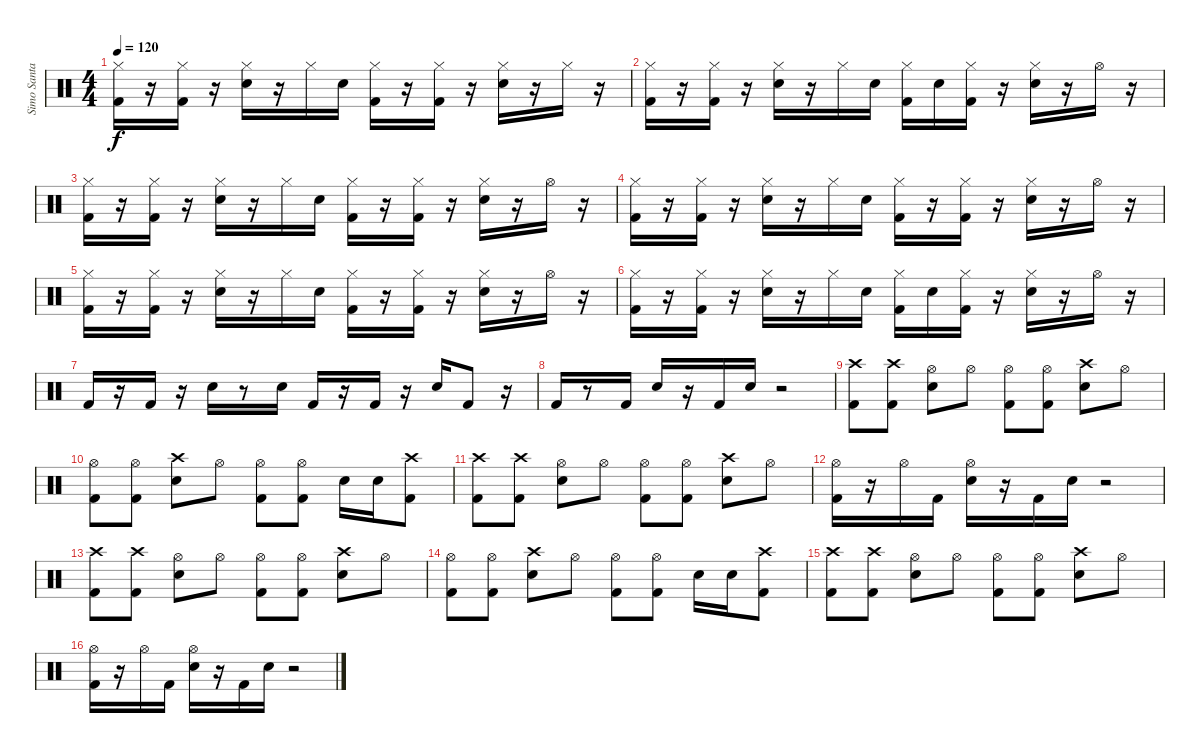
\track ("Simo Santapukki" "Simo Santa") {instrument percussion}
\staff {score}
\articulation defaults
\ts (4 4)
\tempo 120
\clef neutral
\ks c
("Hi-Hat (closed)" "Kick (hit) 2").16{dy f} r.16 ("Hi-Hat (closed)" "Kick (hit) 2").16 r.16 ("Hi-Hat (closed)" "Snare (hit) 2").16 r.16 "Hi-Hat (closed)".16 "Snare (hit) 2".16 ("Hi-Hat (closed)" "Kick (hit) 2").16 r.16 ("Hi-Hat (closed)" "Kick (hit) 2").16 r.16 ("Hi-Hat (closed)" "Snare (hit) 2").16 r.16 "Hi-Hat (closed)".16 r.16 |
("Hi-Hat (closed)" "Kick (hit) 2").16 r.16 ("Hi-Hat (closed)" "Kick (hit) 2").16 r.16 ("Hi-Hat (closed)" "Snare (hit) 2").16 r.16 "Hi-Hat (closed)".16 "Snare (hit) 2".16 ("Hi-Hat (closed)" "Kick (hit) 2").16 "Snare (hit) 2".16 ("Hi-Hat (closed)" "Kick (hit) 2").16 r.16 ("Hi-Hat (closed)" "Snare (hit) 2").16 r.16 "Hi-Hat (open)".16 r.16 |
("Hi-Hat (closed)" "Kick (hit) 2").16 r.16 ("Hi-Hat (closed)" "Kick (hit) 2").16 r.16 ("Hi-Hat (closed)" "Snare (hit) 2").16 r.16 "Hi-Hat (closed)".16 "Snare (hit) 2".16 ("Hi-Hat (closed)" "Kick (hit) 2").16 r.16 ("Hi-Hat (closed)" "Kick (hit) 2").16 r.16 ("Hi-Hat (closed)" "Snare (hit) 2").16 r.16 "Hi-Hat (open)".16 r.16 |
("Hi-Hat (closed)" "Kick (hit) 2").16 r.16 ("Hi-Hat (closed)" "Kick (hit) 2").16 r.16 ("Hi-Hat (closed)" "Snare (hit) 2").16 r.16 "Hi-Hat (closed)".16 "Snare (hit) 2".16 ("Hi-Hat (closed)" "Kick (hit) 2").16 r.16 ("Hi-Hat (closed)" "Kick (hit) 2").16 r.16 ("Hi-Hat (closed)" "Snare (hit) 2").16 r.16 "Hi-Hat (open)".16 r.16 |
("Hi-Hat (closed)" "Kick (hit) 2").16 r.16 ("Hi-Hat (closed)" "Kick (hit) 2").16 r.16 ("Hi-Hat (closed)" "Snare (hit) 2").16 r.16 "Hi-Hat (closed)".16 "Snare (hit) 2".16 ("Hi-Hat (closed)" "Kick (hit) 2").16 r.16 ("Hi-Hat (closed)" "Kick (hit) 2").16 r.16 ("Hi-Hat (closed)" "Snare (hit) 2").16 r.16 "Hi-Hat (open)".16 r.16 |
("Hi-Hat (closed)" "Kick (hit) 2").16 r.16 ("Hi-Hat (closed)" "Kick (hit) 2").16 r.16 ("Hi-Hat (closed)" "Snare (hit) 2").16 r.16 "Hi-Hat (closed)".16 "Snare (hit) 2".16 ("Hi-Hat (closed)" "Kick (hit) 2").16 "Snare (hit) 2".16 ("Hi-Hat (closed)" "Kick (hit) 2").16 r.16 ("Hi-Hat (closed)" "Snare (hit) 2").16 r.16 "Hi-Hat (open)".16 r.16 |
"Kick (hit) 2".16 r.16 "Kick (hit) 2".16 r.16 "Snare (hit) 2".16 r.8 "Snare (hit) 2".16 "Kick (hit) 2".16 r.16 "Kick (hit) 2".16 r.16 "Snare (hit) 2".16 "Kick (hit) 2".8 r.16 |
"Kick (hit) 2".16 r.8 "Kick (hit) 2".16 "Snare (hit) 2".16 r.16 "Kick (hit) 2".16 "Snare (hit) 2".16 r.2 |
("Crash high (hit)" "Kick (hit) 2").8 ("Crash high (hit)" "Kick (hit) 2").8 ("Hi-Hat (open)" "Snare (hit) 2").8 "Hi-Hat (open)".8 ("Hi-Hat (open)" "Kick (hit) 2").8 ("Hi-Hat (open)" "Kick (hit) 2").8 ("Crash high (hit)" "Snare (hit) 2").8 "Hi-Hat (open)".8 |
("Hi-Hat (open)" "Kick (hit) 2").8 ("Hi-Hat (open)" "Kick (hit) 2").8 ("Crash high (hit)" "Snare (hit) 2").8 "Hi-Hat (open)".8 ("Hi-Hat (open)" "Kick (hit) 2").8 ("Hi-Hat (open)" "Kick (hit) 2").8 "Snare (hit) 2".16 "Snare (hit) 2".16 ("Crash high (hit)" "Kick (hit) 2").8 |
("Crash high (hit)" "Kick (hit) 2").8 ("Crash high (hit)" "Kick (hit) 2").8 ("Hi-Hat (open)" "Snare (hit) 2").8 "Hi-Hat (open)".8 ("Hi-Hat (open)" "Kick (hit) 2").8 ("Hi-Hat (open)" "Kick (hit) 2").8 ("Crash high (hit)" "Snare (hit) 2").8 "Hi-Hat (open)".8 |
("Hi-Hat (open)" "Kick (hit) 2").16 r.16 "Hi-Hat (open)".16 "Kick (hit) 2".16 ("Hi-Hat (open)" "Snare (hit) 2").16 r.16 "Kick (hit) 2".16 "Snare (hit) 2".16 r.2 |
("Crash high (hit)" "Kick (hit) 2").8 ("Crash high (hit)" "Kick (hit) 2").8 ("Hi-Hat (open)" "Snare (hit) 2").8 "Hi-Hat (open)".8 ("Hi-Hat (open)" "Kick (hit) 2").8 ("Hi-Hat (open)" "Kick (hit) 2").8 ("Crash high (hit)" "Snare (hit) 2").8 "Hi-Hat (open)".8 |
("Hi-Hat (open)" "Kick (hit) 2").8 ("Hi-Hat (open)" "Kick (hit) 2").8 ("Crash high (hit)" "Snare (hit) 2").8 "Hi-Hat (open)".8 ("Hi-Hat (open)" "Kick (hit) 2").8 ("Hi-Hat (open)" "Kick (hit) 2").8 "Snare (hit) 2".16 "Snare (hit) 2".16 ("Crash high (hit)" "Kick (hit) 2").8 |
("Crash high (hit)" "Kick (hit) 2").8 ("Crash high (hit)" "Kick (hit) 2").8 ("Hi-Hat (open)" "Snare (hit) 2").8 "Hi-Hat (open)".8 ("Hi-Hat (open)" "Kick (hit) 2").8 ("Hi-Hat (open)" "Kick (hit) 2").8 ("Crash high (hit)" "Snare (hit) 2").8 "Hi-Hat (open)".8 |
("Hi-Hat (open)" "Kick (hit) 2").16 r.16 "Hi-Hat (open)".16 "Kick (hit) 2".16 ("Hi-Hat (open)" "Snare (hit) 2").16 r.16 "Kick (hit) 2".16 "Snare (hit) 2".16 r.2
